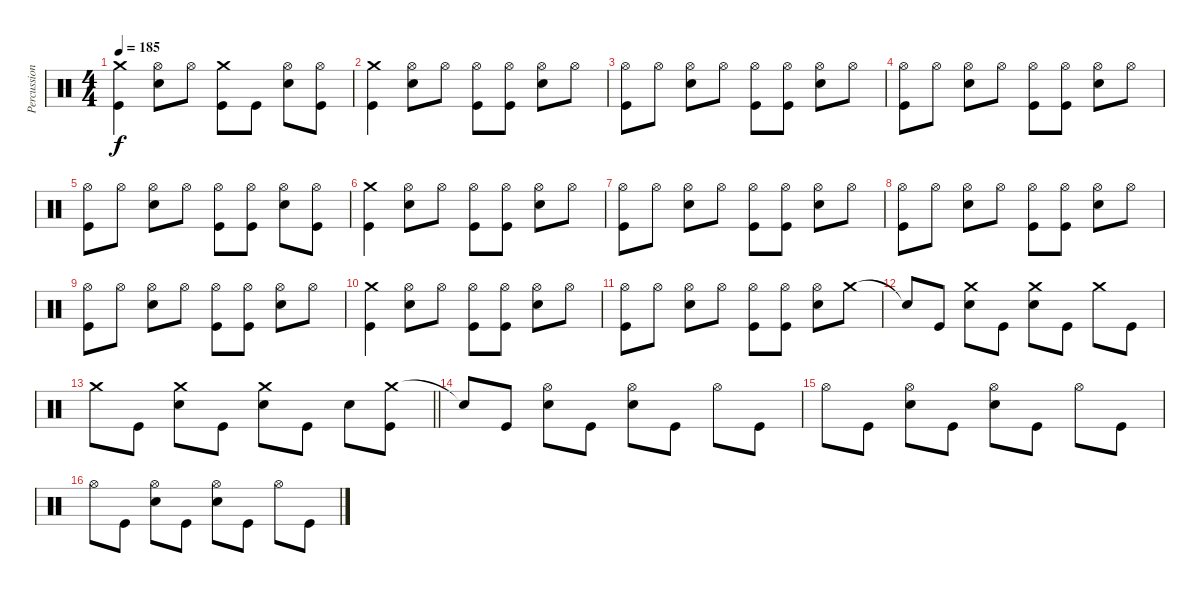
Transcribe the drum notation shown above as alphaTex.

\track ("Percussion" "Percussion") {instrument percussion}
\staff {score}
\articulation defaults
\ts (4 4)
\tempo 185
\clef neutral
\ks c
("Crash medium (hit)" "Kick (hit)").4{dy f} ("Hi-Hat (open)" "Electric Snare (hit)").8 "Hi-Hat (open)".8 ("Crash medium (hit)" "Kick (hit)").8 "Kick (hit)".8 ("Hi-Hat (open)" "Electric Snare (hit)").8 ("Hi-Hat (open)" "Kick (hit)").8 |
("Crash medium (hit)" "Kick (hit)").4 ("Hi-Hat (open)" "Electric Snare (hit)").8 "Hi-Hat (open)".8 ("Hi-Hat (open)" "Kick (hit)").8 ("Hi-Hat (open)" "Kick (hit)").8 ("Hi-Hat (open)" "Electric Snare (hit)").8 "Hi-Hat (open)".8 |
("Hi-Hat (open)" "Kick (hit)").8 "Hi-Hat (open)".8 ("Hi-Hat (open)" "Electric Snare (hit)").8 "Hi-Hat (open)".8 ("Hi-Hat (open)" "Kick (hit)").8 ("Hi-Hat (open)" "Kick (hit)").8 ("Hi-Hat (open)" "Electric Snare (hit)").8 "Hi-Hat (open)".8 |
("Hi-Hat (open)" "Kick (hit)").8 "Hi-Hat (open)".8 ("Hi-Hat (open)" "Electric Snare (hit)").8 "Hi-Hat (open)".8 ("Hi-Hat (open)" "Kick (hit)").8 ("Hi-Hat (open)" "Kick (hit)").8 ("Hi-Hat (open)" "Electric Snare (hit)").8 "Hi-Hat (open)".8 |
("Hi-Hat (open)" "Kick (hit)").8 "Hi-Hat (open)".8 ("Hi-Hat (open)" "Electric Snare (hit)").8 "Hi-Hat (open)".8 ("Hi-Hat (open)" "Kick (hit)").8 ("Hi-Hat (open)" "Kick (hit)").8 ("Hi-Hat (open)" "Electric Snare (hit)").8 ("Hi-Hat (open)" "Kick (hit)").8 |
("Crash medium (hit)" "Kick (hit)").4 ("Hi-Hat (open)" "Electric Snare (hit)").8 "Hi-Hat (open)".8 ("Hi-Hat (open)" "Kick (hit)").8 ("Hi-Hat (open)" "Kick (hit)").8 ("Hi-Hat (open)" "Electric Snare (hit)").8 "Hi-Hat (open)".8 |
("Hi-Hat (open)" "Kick (hit)").8 "Hi-Hat (open)".8 ("Hi-Hat (open)" "Electric Snare (hit)").8 "Hi-Hat (open)".8 ("Hi-Hat (open)" "Kick (hit)").8 ("Hi-Hat (open)" "Kick (hit)").8 ("Hi-Hat (open)" "Electric Snare (hit)").8 "Hi-Hat (open)".8 |
("Hi-Hat (open)" "Kick (hit)").8 "Hi-Hat (open)".8 ("Hi-Hat (open)" "Electric Snare (hit)").8 "Hi-Hat (open)".8 ("Hi-Hat (open)" "Kick (hit)").8 ("Hi-Hat (open)" "Kick (hit)").8 ("Hi-Hat (open)" "Electric Snare (hit)").8 "Hi-Hat (open)".8 |
("Hi-Hat (open)" "Kick (hit)").8 "Hi-Hat (open)".8 ("Hi-Hat (open)" "Electric Snare (hit)").8 "Hi-Hat (open)".8 ("Hi-Hat (open)" "Kick (hit)").8 ("Hi-Hat (open)" "Kick (hit)").8 ("Hi-Hat (open)" "Electric Snare (hit)").8 "Hi-Hat (open)".8 |
("Crash medium (hit)" "Kick (hit)").4 ("Hi-Hat (open)" "Electric Snare (hit)").8 "Hi-Hat (open)".8 ("Hi-Hat (open)" "Kick (hit)").8 ("Hi-Hat (open)" "Kick (hit)").8 ("Hi-Hat (open)" "Electric Snare (hit)").8 "Hi-Hat (open)".8 |
("Hi-Hat (open)" "Kick (hit)").8 "Hi-Hat (open)".8 ("Hi-Hat (open)" "Electric Snare (hit)").8 "Hi-Hat (open)".8 ("Hi-Hat (open)" "Kick (hit)").8 ("Hi-Hat (open)" "Kick (hit)").8 ("Hi-Hat (open)" "Electric Snare (hit)").8 "Crash medium (hit)".8 |
"Snare (hit)"{t}.8 "Kick (hit)".8 ("Crash medium (hit)" "Electric Snare (hit)").8 "Kick (hit)".8 ("Crash medium (hit)" "Electric Snare (hit)").8 "Kick (hit)".8 "Crash medium (hit)".8 "Kick (hit)".8 |
\barLineRight lightlight "Crash medium (hit)".8 "Kick (hit)".8
("Crash medium (hit)" "Electric Snare (hit)").8 "Kick (hit)".8 ("Crash medium (hit)" "Electric Snare (hit)").8 "Kick (hit)".8 "Electric Snare (hit)".8 ("Crash medium (hit)" "Kick (hit)").8 |
"Snare (hit)"{t}.8 "Kick (hit)".8 ("Hi-Hat (open)" "Electric Snare (hit)").8 "Kick (hit)".8 ("Hi-Hat (open)" "Electric Snare (hit)").8 "Kick (hit)".8 "Hi-Hat (open)".8 "Kick (hit)".8 |
"Hi-Hat (open)".8 "Kick (hit)".8 ("Hi-Hat (open)" "Electric Snare (hit)").8 "Kick (hit)".8 ("Hi-Hat (open)" "Electric Snare (hit)").8 "Kick (hit)".8 "Hi-Hat (open)".8 "Kick (hit)".8 |
"Hi-Hat (open)".8 "Kick (hit)".8 ("Hi-Hat (open)" "Electric Snare (hit)").8 "Kick (hit)".8 ("Hi-Hat (open)" "Electric Snare (hit)").8 "Kick (hit)".8 "Hi-Hat (open)".8 "Kick (hit)".8
